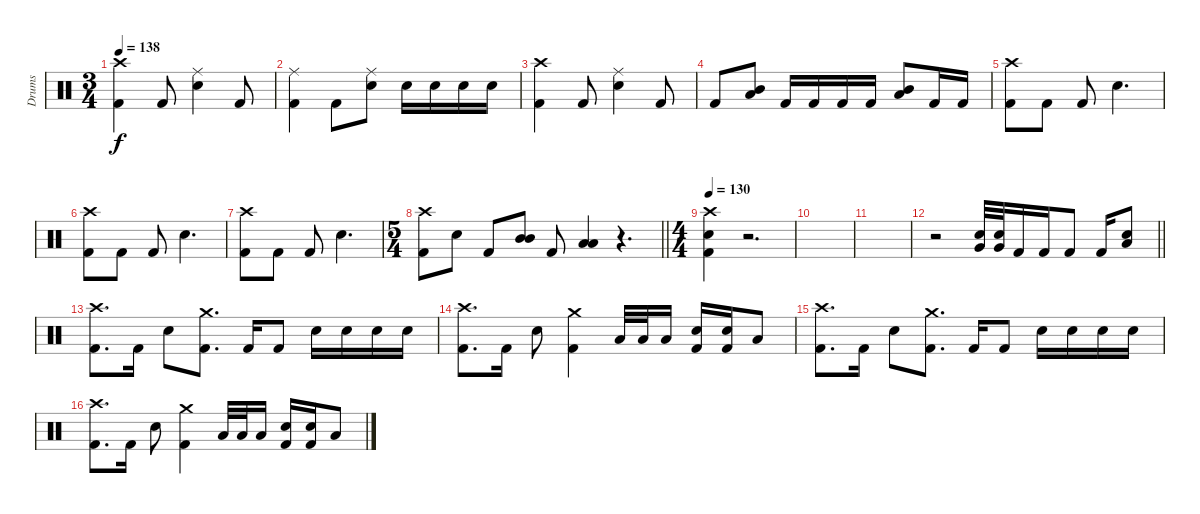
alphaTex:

\track ("Drums" "Drums") {instrument percussion}
\staff {score}
\articulation defaults
\ts (3 4)
\tempo 138
\clef neutral
\ks c
("Crash high (hit)" "Kick (hit) 2").4{dy f} "Kick (hit) 2".8 ("Ride (middle)" "Electric Snare (hit)").4 "Kick (hit) 2".8 |
("Ride (middle)" "Kick (hit) 2").4 "Kick (hit) 2".8 ("Ride (middle)" "Electric Snare (hit)").8 "Electric Snare (hit)".16 "Electric Snare (hit)".16 "Electric Snare (hit)".16 "Electric Snare (hit)".16 |
("Crash high (hit)" "Kick (hit) 2").4 "Kick (hit) 2".8 ("Ride (middle)" "Electric Snare (hit)").4 "Kick (hit) 2".8 |
"Kick (hit) 2".8 ("Low Tom (hit)" "Mid Tom (hit)").8 "Kick (hit) 2".16 "Kick (hit) 2".16 "Kick (hit) 2".16 "Kick (hit) 2".16 ("Low Tom (hit)" "Mid Tom (hit)").8 "Kick (hit) 2".16 "Kick (hit) 2".16 |
("Crash high (hit)" "Kick (hit) 2").8 "Kick (hit) 2".8 "Kick (hit) 2".8 "Electric Snare (hit)".4{d} |
("Crash high (hit)" "Kick (hit) 2").8 "Kick (hit) 2".8 "Kick (hit) 2".8 "Electric Snare (hit)".4{d} |
("Crash high (hit)" "Kick (hit) 2").8 "Kick (hit) 2".8 "Kick (hit) 2".8 "Electric Snare (hit)".4{d} |
\ts (5 4)
\barLineRight lightlight
("Crash high (hit)" "Kick (hit) 2").8 "Electric Snare (hit)".8 "Kick (hit) 2".8 ("Mid Tom (hit)" "Mid Tom (hit)").8 "Kick (hit) 2".8 ("Low Tom (hit)" "Low Tom (hit)").4 r.4{d} |
\ts (4 4)
\tempo 130
("Crash high (hit)" "Electric Snare (hit)" "Kick (hit) 2").4 r.2{d} |
|
|
\barLineRight lightlight
r.2 ("Very Low Tom (hit)" "Electric Snare (hit)").32 ("Very Low Tom (hit)" "Electric Snare (hit)").32 "Kick (hit) 2".16 "Kick (hit) 2".16 "Kick (hit) 2".8 "Kick (hit) 2".16 ("Electric Snare (hit)" "Low Tom (hit)").8 |
("Crash high (hit)" "Kick (hit) 2").8{d} "Kick (hit) 2".16 "Electric Snare (hit)".8 ("Crash medium (hit)" "Kick (hit) 2").8{d} "Kick (hit) 2".16 "Kick (hit) 2".8 "Electric Snare (hit)".16 "Electric Snare (hit)".16 "Electric Snare (hit)".16 "Electric Snare (hit)".16 |
("Crash high (hit)" "Kick (hit) 2").8{d} "Kick (hit) 2".16 "Electric Snare (hit)".8 ("Crash medium (hit)" "Kick (hit) 2").4 "Low Tom (hit)".32 "Low Tom (hit)".32 "Low Tom (hit)".16 ("Electric Snare (hit)" "Kick (hit) 2").16 ("Electric Snare (hit)" "Kick (hit) 2").16 "Low Tom (hit)".8 |
("Crash high (hit)" "Kick (hit) 2").8{d} "Kick (hit) 2".16 "Electric Snare (hit)".8 ("Crash medium (hit)" "Kick (hit) 2").8{d} "Kick (hit) 2".16 "Kick (hit) 2".8 "Electric Snare (hit)".16 "Electric Snare (hit)".16 "Electric Snare (hit)".16 "Electric Snare (hit)".16 |
("Crash high (hit)" "Kick (hit) 2").8{d} "Kick (hit) 2".16 "Electric Snare (hit)".8 ("Crash medium (hit)" "Kick (hit) 2").4 "Low Tom (hit)".32 "Low Tom (hit)".32 "Low Tom (hit)".16 ("Electric Snare (hit)" "Kick (hit) 2").16 ("Electric Snare (hit)" "Kick (hit) 2").16 "Low Tom (hit)".8
